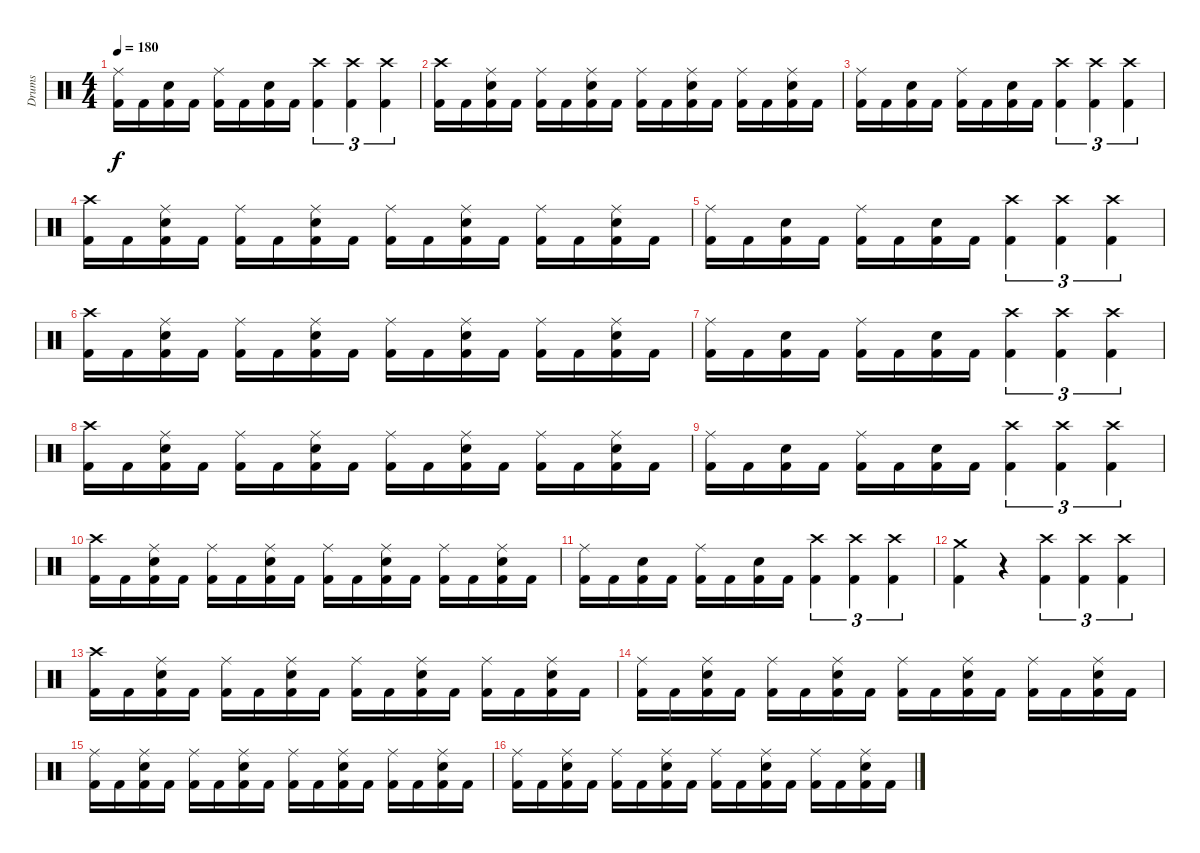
\track ("Drums" "Drums") {instrument percussion}
\staff {score}
\articulation defaults
\ts (4 4)
\tempo 180
\clef neutral
\ks c
("Ride (middle)" "Kick (hit) 2").16{dy f} "Kick (hit) 2".16 ("Electric Snare (hit)" "Kick (hit) 2").16 "Kick (hit) 2".16 ("Ride (middle)" "Kick (hit) 2").16 "Kick (hit) 2".16 ("Electric Snare (hit)" "Kick (hit) 2").16 "Kick (hit) 2".16 ("Crash high (hit)" "Kick (hit) 2").4{tu (3 2)} ("Crash high (hit)" "Kick (hit) 2").4{tu (3 2)} ("Crash high (hit)" "Kick (hit) 2").4{tu (3 2)} |
("Crash high (hit)" "Kick (hit) 2").16 "Kick (hit) 2".16 ("Ride (middle)" "Electric Snare (hit)" "Kick (hit) 2").16 "Kick (hit) 2".16 ("Ride (middle)" "Kick (hit) 2").16 "Kick (hit) 2".16 ("Ride (middle)" "Electric Snare (hit)" "Kick (hit) 2").16 "Kick (hit) 2".16 ("Ride (middle)" "Kick (hit) 2").16 "Kick (hit) 2".16 ("Ride (middle)" "Electric Snare (hit)" "Kick (hit) 2").16 "Kick (hit) 2".16 ("Ride (middle)" "Kick (hit) 2").16 "Kick (hit) 2".16 ("Ride (middle)" "Electric Snare (hit)" "Kick (hit) 2").16 "Kick (hit) 2".16 |
("Ride (middle)" "Kick (hit) 2").16 "Kick (hit) 2".16 ("Electric Snare (hit)" "Kick (hit) 2").16 "Kick (hit) 2".16 ("Ride (middle)" "Kick (hit) 2").16 "Kick (hit) 2".16 ("Electric Snare (hit)" "Kick (hit) 2").16 "Kick (hit) 2".16 ("Crash high (hit)" "Kick (hit) 2").4{tu (3 2)} ("Crash high (hit)" "Kick (hit) 2").4{tu (3 2)} ("Crash high (hit)" "Kick (hit) 2").4{tu (3 2)} |
("Crash high (hit)" "Kick (hit) 2").16 "Kick (hit) 2".16 ("Ride (middle)" "Electric Snare (hit)" "Kick (hit) 2").16 "Kick (hit) 2".16 ("Ride (middle)" "Kick (hit) 2").16 "Kick (hit) 2".16 ("Ride (middle)" "Electric Snare (hit)" "Kick (hit) 2").16 "Kick (hit) 2".16 ("Ride (middle)" "Kick (hit) 2").16 "Kick (hit) 2".16 ("Ride (middle)" "Electric Snare (hit)" "Kick (hit) 2").16 "Kick (hit) 2".16 ("Ride (middle)" "Kick (hit) 2").16 "Kick (hit) 2".16 ("Ride (middle)" "Electric Snare (hit)" "Kick (hit) 2").16 "Kick (hit) 2".16 |
("Ride (middle)" "Kick (hit) 2").16 "Kick (hit) 2".16 ("Electric Snare (hit)" "Kick (hit) 2").16 "Kick (hit) 2".16 ("Ride (middle)" "Kick (hit) 2").16 "Kick (hit) 2".16 ("Electric Snare (hit)" "Kick (hit) 2").16 "Kick (hit) 2".16 ("Crash high (hit)" "Kick (hit) 2").4{tu (3 2)} ("Crash high (hit)" "Kick (hit) 2").4{tu (3 2)} ("Crash high (hit)" "Kick (hit) 2").4{tu (3 2)} |
("Crash high (hit)" "Kick (hit) 2").16 "Kick (hit) 2".16 ("Ride (middle)" "Electric Snare (hit)" "Kick (hit) 2").16 "Kick (hit) 2".16 ("Ride (middle)" "Kick (hit) 2").16 "Kick (hit) 2".16 ("Ride (middle)" "Electric Snare (hit)" "Kick (hit) 2").16 "Kick (hit) 2".16 ("Ride (middle)" "Kick (hit) 2").16 "Kick (hit) 2".16 ("Ride (middle)" "Electric Snare (hit)" "Kick (hit) 2").16 "Kick (hit) 2".16 ("Ride (middle)" "Kick (hit) 2").16 "Kick (hit) 2".16 ("Ride (middle)" "Electric Snare (hit)" "Kick (hit) 2").16 "Kick (hit) 2".16 |
("Ride (middle)" "Kick (hit) 2").16 "Kick (hit) 2".16 ("Electric Snare (hit)" "Kick (hit) 2").16 "Kick (hit) 2".16 ("Ride (middle)" "Kick (hit) 2").16 "Kick (hit) 2".16 ("Electric Snare (hit)" "Kick (hit) 2").16 "Kick (hit) 2".16 ("Crash high (hit)" "Kick (hit) 2").4{tu (3 2)} ("Crash high (hit)" "Kick (hit) 2").4{tu (3 2)} ("Crash high (hit)" "Kick (hit) 2").4{tu (3 2)} |
("Crash high (hit)" "Kick (hit) 2").16 "Kick (hit) 2".16 ("Ride (middle)" "Electric Snare (hit)" "Kick (hit) 2").16 "Kick (hit) 2".16 ("Ride (middle)" "Kick (hit) 2").16 "Kick (hit) 2".16 ("Ride (middle)" "Electric Snare (hit)" "Kick (hit) 2").16 "Kick (hit) 2".16 ("Ride (middle)" "Kick (hit) 2").16 "Kick (hit) 2".16 ("Ride (middle)" "Electric Snare (hit)" "Kick (hit) 2").16 "Kick (hit) 2".16 ("Ride (middle)" "Kick (hit) 2").16 "Kick (hit) 2".16 ("Ride (middle)" "Electric Snare (hit)" "Kick (hit) 2").16 "Kick (hit) 2".16 |
("Ride (middle)" "Kick (hit) 2").16 "Kick (hit) 2".16 ("Electric Snare (hit)" "Kick (hit) 2").16 "Kick (hit) 2".16 ("Ride (middle)" "Kick (hit) 2").16 "Kick (hit) 2".16 ("Electric Snare (hit)" "Kick (hit) 2").16 "Kick (hit) 2".16 ("Crash high (hit)" "Kick (hit) 2").4{tu (3 2)} ("Crash high (hit)" "Kick (hit) 2").4{tu (3 2)} ("Crash high (hit)" "Kick (hit) 2").4{tu (3 2)} |
("Crash high (hit)" "Kick (hit) 2").16 "Kick (hit) 2".16 ("Ride (middle)" "Electric Snare (hit)" "Kick (hit) 2").16 "Kick (hit) 2".16 ("Ride (middle)" "Kick (hit) 2").16 "Kick (hit) 2".16 ("Ride (middle)" "Electric Snare (hit)" "Kick (hit) 2").16 "Kick (hit) 2".16 ("Ride (middle)" "Kick (hit) 2").16 "Kick (hit) 2".16 ("Ride (middle)" "Electric Snare (hit)" "Kick (hit) 2").16 "Kick (hit) 2".16 ("Ride (middle)" "Kick (hit) 2").16 "Kick (hit) 2".16 ("Ride (middle)" "Electric Snare (hit)" "Kick (hit) 2").16 "Kick (hit) 2".16 |
("Ride (middle)" "Kick (hit) 2").16 "Kick (hit) 2".16 ("Electric Snare (hit)" "Kick (hit) 2").16 "Kick (hit) 2".16 ("Ride (middle)" "Kick (hit) 2").16 "Kick (hit) 2".16 ("Electric Snare (hit)" "Kick (hit) 2").16 "Kick (hit) 2".16 ("Crash high (hit)" "Kick (hit) 2").4{tu (3 2)} ("Crash high (hit)" "Kick (hit) 2").4{tu (3 2)} ("Crash high (hit)" "Kick (hit) 2").4{tu (3 2)} |
("Crash medium (hit)" "Kick (hit) 2").4 r.4 ("Crash high (hit)" "Kick (hit) 2").4{tu (3 2)} ("Crash high (hit)" "Kick (hit) 2").4{tu (3 2)} ("Crash high (hit)" "Kick (hit) 2").4{tu (3 2)} |
("Crash high (hit)" "Kick (hit) 2").16 "Kick (hit) 2".16 ("Ride (middle)" "Electric Snare (hit)" "Kick (hit) 2").16 "Kick (hit) 2".16 ("Ride (middle)" "Kick (hit) 2").16 "Kick (hit) 2".16 ("Ride (middle)" "Electric Snare (hit)" "Kick (hit) 2").16 "Kick (hit) 2".16 ("Ride (middle)" "Kick (hit) 2").16 "Kick (hit) 2".16 ("Ride (middle)" "Electric Snare (hit)" "Kick (hit) 2").16 "Kick (hit) 2".16 ("Ride (middle)" "Kick (hit) 2").16 "Kick (hit) 2".16 ("Ride (middle)" "Electric Snare (hit)" "Kick (hit) 2").16 "Kick (hit) 2".16 |
("Ride (middle)" "Kick (hit) 2").16 "Kick (hit) 2".16 ("Ride (middle)" "Electric Snare (hit)" "Kick (hit) 2").16 "Kick (hit) 2".16 ("Ride (middle)" "Kick (hit) 2").16 "Kick (hit) 2".16 ("Ride (middle)" "Electric Snare (hit)" "Kick (hit) 2").16 "Kick (hit) 2".16 ("Ride (middle)" "Kick (hit) 2").16 "Kick (hit) 2".16 ("Ride (middle)" "Electric Snare (hit)" "Kick (hit) 2").16 "Kick (hit) 2".16 ("Ride (middle)" "Kick (hit) 2").16 "Kick (hit) 2".16 ("Ride (middle)" "Electric Snare (hit)" "Kick (hit) 2").16 "Kick (hit) 2".16 |
("Ride (middle)" "Kick (hit) 2").16 "Kick (hit) 2".16 ("Ride (middle)" "Electric Snare (hit)" "Kick (hit) 2").16 "Kick (hit) 2".16 ("Ride (middle)" "Kick (hit) 2").16 "Kick (hit) 2".16 ("Ride (middle)" "Electric Snare (hit)" "Kick (hit) 2").16 "Kick (hit) 2".16 ("Ride (middle)" "Kick (hit) 2").16 "Kick (hit) 2".16 ("Ride (middle)" "Electric Snare (hit)" "Kick (hit) 2").16 "Kick (hit) 2".16 ("Ride (middle)" "Kick (hit) 2").16 "Kick (hit) 2".16 ("Ride (middle)" "Electric Snare (hit)" "Kick (hit) 2").16 "Kick (hit) 2".16 |
("Ride (middle)" "Kick (hit) 2").16 "Kick (hit) 2".16 ("Ride (middle)" "Electric Snare (hit)" "Kick (hit) 2").16 "Kick (hit) 2".16 ("Ride (middle)" "Kick (hit) 2").16 "Kick (hit) 2".16 ("Ride (middle)" "Electric Snare (hit)" "Kick (hit) 2").16 "Kick (hit) 2".16 ("Ride (middle)" "Kick (hit) 2").16 "Kick (hit) 2".16 ("Ride (middle)" "Electric Snare (hit)" "Kick (hit) 2").16 "Kick (hit) 2".16 ("Ride (middle)" "Kick (hit) 2").16 "Kick (hit) 2".16 ("Ride (middle)" "Electric Snare (hit)" "Kick (hit) 2").16 "Kick (hit) 2".16
